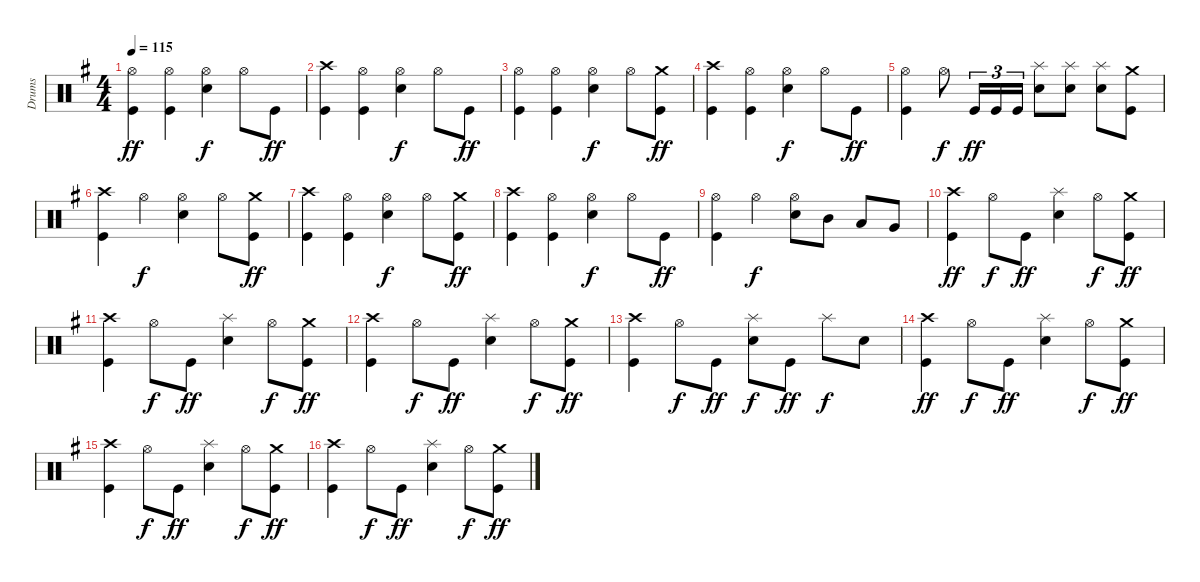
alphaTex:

\track ("Drums" "Drums") {instrument percussion}
\staff {score}
\articulation defaults
\ts (4 4)
\tempo 115
\clef neutral
\ks g
("Hi-Hat (open)" "Kick (hit)").4{dy ff} ("Hi-Hat (open)" "Kick (hit)").4 ("Hi-Hat (open)" "Electric Snare (hit)").4{dy f} "Hi-Hat (open)".8 "Kick (hit)".8{dy ff} |
("Crash high (hit)" "Kick (hit)").4 ("Hi-Hat (open)" "Kick (hit)").4 ("Hi-Hat (open)" "Electric Snare (hit)").4{dy f} "Hi-Hat (open)".8 "Kick (hit)".8{dy ff} |
("Hi-Hat (open)" "Kick (hit)").4 ("Hi-Hat (open)" "Kick (hit)").4 ("Hi-Hat (open)" "Electric Snare (hit)").4{dy f} "Hi-Hat (open)".8 ("Crash medium (hit)" "Kick (hit)").8{dy ff} |
("Crash high (hit)" "Kick (hit)").4 ("Hi-Hat (open)" "Kick (hit)").4 ("Hi-Hat (open)" "Electric Snare (hit)").4{dy f} "Hi-Hat (open)".8 "Kick (hit)".8{dy ff} |
("Hi-Hat (open)" "Kick (hit)").4 "Hi-Hat (open)".8{dy f} "Kick (hit)".16{tu (3 2) dy ff} "Kick (hit)".16{tu (3 2)} "Kick (hit)".16{tu (3 2)} ("Splash (hit)" "Electric Snare (hit)").8 ("Splash (hit)" "Electric Snare (hit)").8 ("Splash (hit)" "Electric Snare (hit)").8 ("Crash medium (hit)" "Kick (hit)").8 |
("Crash high (hit)" "Kick (hit)").4 "Hi-Hat (open)".4{dy f} ("Hi-Hat (open)" "Electric Snare (hit)").4 "Hi-Hat (open)".8 ("Crash medium (hit)" "Kick (hit)").8{dy ff} |
("Crash high (hit)" "Kick (hit)").4 ("Hi-Hat (open)" "Kick (hit)").4 ("Hi-Hat (open)" "Electric Snare (hit)").4{dy f} "Hi-Hat (open)".8 ("Crash medium (hit)" "Kick (hit)").8{dy ff} |
("Crash high (hit)" "Kick (hit)").4 ("Hi-Hat (open)" "Kick (hit)").4 ("Hi-Hat (open)" "Electric Snare (hit)").4{dy f} "Hi-Hat (open)".8 "Kick (hit)".8{dy ff} |
("Hi-Hat (open)" "Kick (hit)").4 "Hi-Hat (open)".4{dy f} ("Hi-Hat (open)" "Electric Snare (hit)").8 "Mid Tom (hit)".8 "Low Tom (hit)".8 "Very Low Tom (hit)".8 |
("Crash high (hit)" "Kick (hit)").4{dy ff} "Hi-Hat (open)".8{dy f} "Kick (hit)".8{dy ff} ("Splash (hit)" "Electric Snare (hit)").4 "Hi-Hat (open)".8{dy f} ("Crash medium (hit)" "Kick (hit)").8{dy ff} |
("Crash high (hit)" "Kick (hit)").4 "Hi-Hat (open)".8{dy f} "Kick (hit)".8{dy ff} ("Splash (hit)" "Electric Snare (hit)").4 "Hi-Hat (open)".8{dy f} ("Crash medium (hit)" "Kick (hit)").8{dy ff} |
("Crash high (hit)" "Kick (hit)").4 "Hi-Hat (open)".8{dy f} "Kick (hit)".8{dy ff} ("Splash (hit)" "Electric Snare (hit)").4 "Hi-Hat (open)".8{dy f} ("Crash medium (hit)" "Kick (hit)").8{dy ff} |
("Crash high (hit)" "Kick (hit)").4 "Hi-Hat (open)".8{dy f} "Kick (hit)".8{dy ff} ("Splash (hit)" "Electric Snare (hit)").8{dy f} "Kick (hit)".8{dy ff} "Splash (hit)".8{dy f} "Electric Snare (hit)".8 |
("Crash high (hit)" "Kick (hit)").4{dy ff} "Hi-Hat (open)".8{dy f} "Kick (hit)".8{dy ff} ("Splash (hit)" "Electric Snare (hit)").4 "Hi-Hat (open)".8{dy f} ("Crash medium (hit)" "Kick (hit)").8{dy ff} |
("Crash high (hit)" "Kick (hit)").4 "Hi-Hat (open)".8{dy f} "Kick (hit)".8{dy ff} ("Splash (hit)" "Electric Snare (hit)").4 "Hi-Hat (open)".8{dy f} ("Crash medium (hit)" "Kick (hit)").8{dy ff} |
("Crash high (hit)" "Kick (hit)").4 "Hi-Hat (open)".8{dy f} "Kick (hit)".8{dy ff} ("Splash (hit)" "Electric Snare (hit)").4 "Hi-Hat (open)".8{dy f} ("Crash medium (hit)" "Kick (hit)").8{dy ff}
